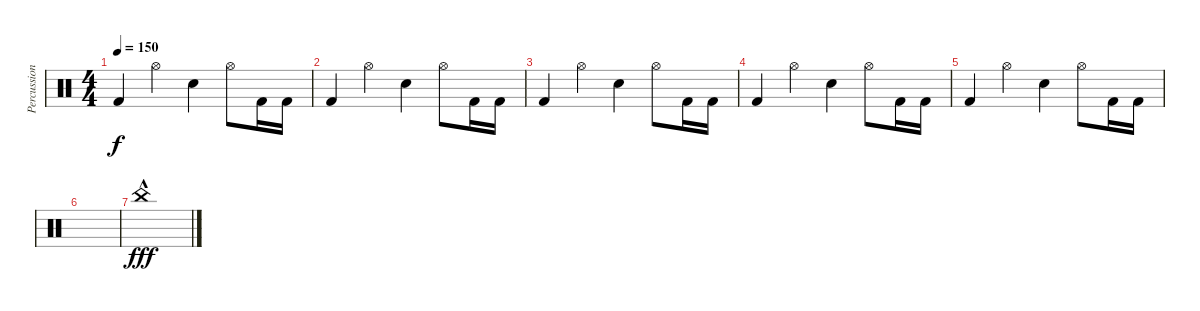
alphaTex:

\track ("Percussions" "Percussion") {instrument percussion}
\staff {score}
\articulation defaults
\ts (4 4)
\tempo 150
\clef neutral
\ks c "Kick (hit) 2".4{dy f} "Hi-Hat (open)".4 "Snare (hit) 2".4 "Hi-Hat (open)".8 "Kick (hit) 2".16 "Kick (hit) 2".16
|
"Kick (hit) 2".4 "Hi-Hat (open)".4 "Snare (hit) 2".4 "Hi-Hat (open)".8 "Kick (hit) 2".16 "Kick (hit) 2".16 |
"Kick (hit) 2".4 "Hi-Hat (open)".4 "Snare (hit) 2".4 "Hi-Hat (open)".8 "Kick (hit) 2".16 "Kick (hit) 2".16 |
"Kick (hit) 2".4 "Hi-Hat (open)".4 "Snare (hit) 2".4 "Hi-Hat (open)".8 "Kick (hit) 2".16 "Kick (hit) 2".16 |
"Kick (hit) 2".4 "Hi-Hat (open)".4 "Snare (hit) 2".4 "Hi-Hat (open)".8 "Kick (hit) 2".16 "Kick (hit) 2".16 |
|
"China (hit)"{hac}.1{dy fff}
